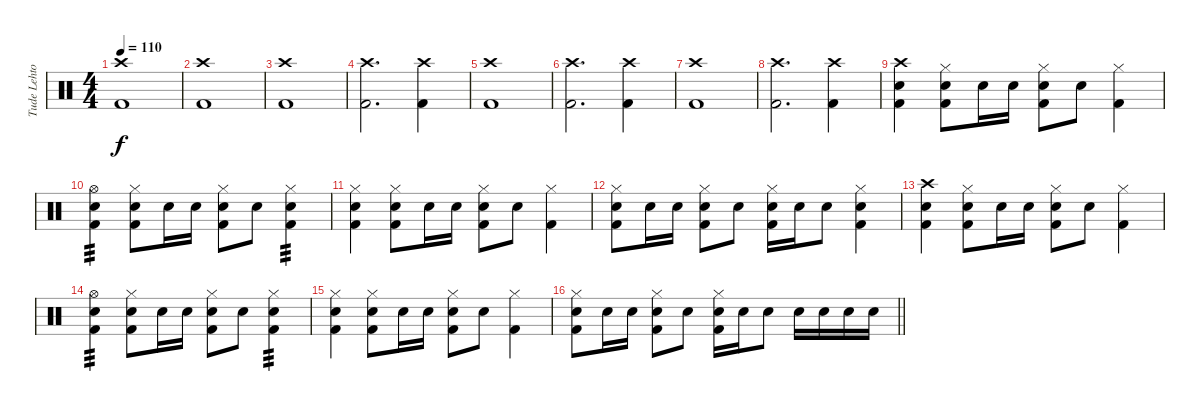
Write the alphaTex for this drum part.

\track ("Tude Lehtonen" "Tude Lehto") {instrument percussion}
\staff {score}
\articulation defaults
\ts (4 4)
\tempo 110
\clef neutral
\ks c
("Crash high (hit)" "Kick (hit) 2").1{dy f} |
("Crash high (hit)" "Kick (hit) 2").1 |
("Crash high (hit)" "Kick (hit) 2").1 |
("Crash high (hit)" "Kick (hit) 2").2{d} ("Crash high (hit)" "Kick (hit) 2").4 |
("Crash high (hit)" "Kick (hit) 2").1 |
("Crash high (hit)" "Kick (hit) 2").2{d} ("Crash high (hit)" "Kick (hit) 2").4 |
("Crash high (hit)" "Kick (hit) 2").1 |
("Crash high (hit)" "Kick (hit) 2").2{d} ("Crash high (hit)" "Kick (hit) 2").4 |
("Crash high (hit)" "Electric Snare (hit)" "Kick (hit) 2").4 ("Hi-Hat (closed)" "Electric Snare (hit)" "Kick (hit) 2").8 "Electric Snare (hit)".16 "Electric Snare (hit)".16 ("Hi-Hat (closed)" "Electric Snare (hit)" "Kick (hit) 2").8 "Electric Snare (hit)".8 ("Hi-Hat (closed)" "Kick (hit) 2").4 |
("Hi-Hat (open)" "Electric Snare (hit)" "Kick (hit) 2").4{tp 3} ("Hi-Hat (closed)" "Electric Snare (hit)" "Kick (hit) 2").8 "Electric Snare (hit)".16 "Electric Snare (hit)".16 ("Hi-Hat (closed)" "Electric Snare (hit)" "Kick (hit) 2").8 "Electric Snare (hit)".8 ("Hi-Hat (closed)" "Electric Snare (hit)" "Kick (hit) 2").4{tp 3} |
("Hi-Hat (closed)" "Electric Snare (hit)" "Kick (hit) 2").4 ("Hi-Hat (closed)" "Electric Snare (hit)" "Kick (hit) 2").8 "Electric Snare (hit)".16 "Electric Snare (hit)".16 ("Hi-Hat (closed)" "Electric Snare (hit)" "Kick (hit) 2").8 "Electric Snare (hit)".8 ("Hi-Hat (closed)" "Kick (hit) 2").4 |
("Hi-Hat (closed)" "Electric Snare (hit)" "Kick (hit) 2").8 "Electric Snare (hit)".16 "Electric Snare (hit)".16 ("Hi-Hat (closed)" "Electric Snare (hit)" "Kick (hit) 2").8 "Electric Snare (hit)".8 ("Hi-Hat (closed)" "Electric Snare (hit)" "Kick (hit) 2").16 "Electric Snare (hit)".16 "Electric Snare (hit)".8 ("Hi-Hat (closed)" "Electric Snare (hit)" "Kick (hit) 2").4 |
("Crash high (hit)" "Electric Snare (hit)" "Kick (hit) 2").4 ("Hi-Hat (closed)" "Electric Snare (hit)" "Kick (hit) 2").8 "Electric Snare (hit)".16 "Electric Snare (hit)".16 ("Hi-Hat (closed)" "Electric Snare (hit)" "Kick (hit) 2").8 "Electric Snare (hit)".8 ("Hi-Hat (closed)" "Kick (hit) 2").4 |
("Hi-Hat (open)" "Electric Snare (hit)" "Kick (hit) 2").4{tp 3} ("Hi-Hat (closed)" "Electric Snare (hit)" "Kick (hit) 2").8 "Electric Snare (hit)".16 "Electric Snare (hit)".16 ("Hi-Hat (closed)" "Electric Snare (hit)" "Kick (hit) 2").8 "Electric Snare (hit)".8 ("Hi-Hat (closed)" "Electric Snare (hit)" "Kick (hit) 2").4{tp 3} |
("Hi-Hat (closed)" "Electric Snare (hit)" "Kick (hit) 2").4 ("Hi-Hat (closed)" "Electric Snare (hit)" "Kick (hit) 2").8 "Electric Snare (hit)".16 "Electric Snare (hit)".16 ("Hi-Hat (closed)" "Electric Snare (hit)" "Kick (hit) 2").8 "Electric Snare (hit)".8 ("Hi-Hat (closed)" "Kick (hit) 2").4 |
\barLineRight lightlight
("Hi-Hat (closed)" "Electric Snare (hit)" "Kick (hit) 2").8 "Electric Snare (hit)".16 "Electric Snare (hit)".16 ("Hi-Hat (closed)" "Electric Snare (hit)" "Kick (hit) 2").8 "Electric Snare (hit)".8 ("Hi-Hat (closed)" "Electric Snare (hit)" "Kick (hit) 2").16 "Electric Snare (hit)".16 "Electric Snare (hit)".8 "Electric Snare (hit)".16 "Electric Snare (hit)".16 "Electric Snare (hit)".16 "Electric Snare (hit)".16
